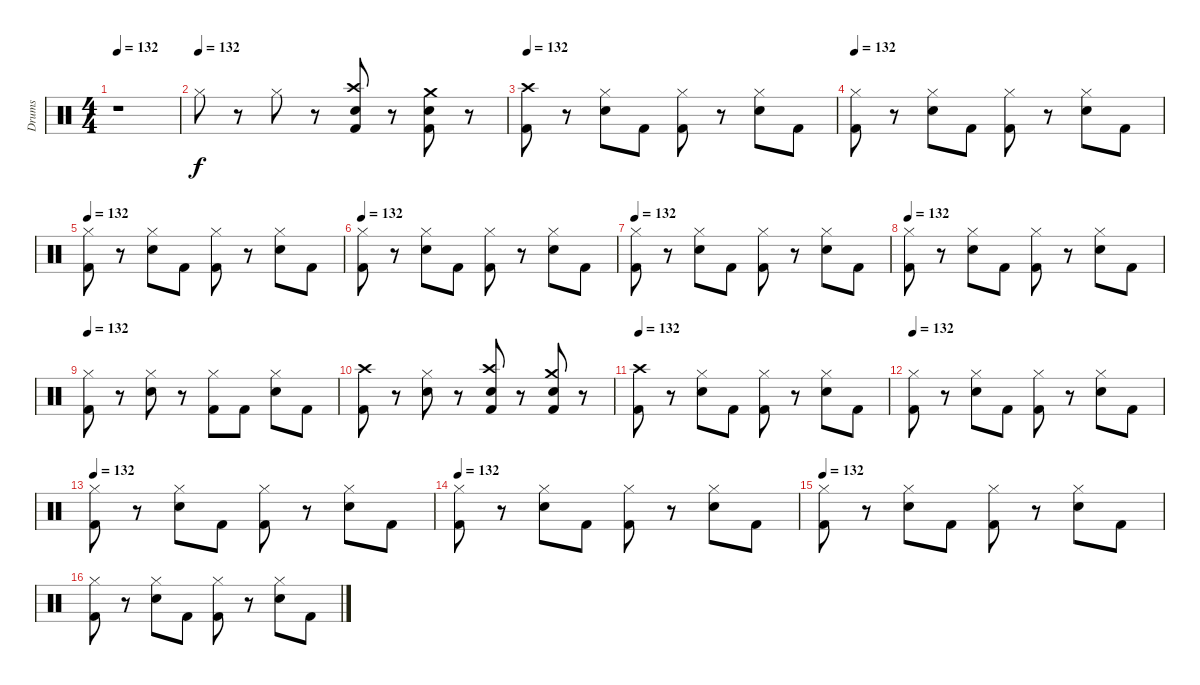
\track ("Drums" "Drums") {instrument percussion}
\staff {score}
\articulation defaults
\ts (4 4)
\tempo 132
\clef neutral
\ks c
r.1{dy f} |
\tempo (132)
"Hi-Hat (closed)".8 r.8 "Hi-Hat (closed)".8 r.8 ("Kick (hit) 2" "Crash high (hit)" "Snare (hit) 2").8 r.8 ("Kick (hit) 2" "Crash medium (hit)" "Snare (hit) 2").8 r.8 |
\tempo 132
("Crash high (hit)" "Kick (hit) 2").8 r.8 ("Hi-Hat (closed)" "Electric Snare (hit)").8 "Kick (hit) 2".8 ("Hi-Hat (closed)" "Kick (hit) 2").8 r.8 ("Hi-Hat (closed)" "Electric Snare (hit)").8 "Kick (hit) 2".8 |
\tempo 132
("Hi-Hat (closed)" "Kick (hit) 2").8 r.8 ("Electric Snare (hit)" "Hi-Hat (closed)").8 "Kick (hit) 2".8 ("Kick (hit) 2" "Hi-Hat (closed)").8 r.8 ("Electric Snare (hit)" "Hi-Hat (closed)").8 "Kick (hit) 2".8 |
\tempo 132
("Hi-Hat (closed)" "Kick (hit) 2").8 r.8 ("Electric Snare (hit)" "Hi-Hat (closed)").8 "Kick (hit) 2".8 ("Kick (hit) 2" "Hi-Hat (closed)").8 r.8 ("Electric Snare (hit)" "Hi-Hat (closed)").8 "Kick (hit) 2".8 |
\tempo 132
("Hi-Hat (closed)" "Kick (hit) 2").8 r.8 ("Electric Snare (hit)" "Hi-Hat (closed)").8 "Kick (hit) 2".8 ("Kick (hit) 2" "Hi-Hat (closed)").8 r.8 ("Electric Snare (hit)" "Hi-Hat (closed)").8 "Kick (hit) 2".8 |
\tempo 132
("Hi-Hat (closed)" "Kick (hit) 2").8 r.8 ("Electric Snare (hit)" "Hi-Hat (closed)").8 "Kick (hit) 2".8 ("Kick (hit) 2" "Hi-Hat (closed)").8 r.8 ("Electric Snare (hit)" "Hi-Hat (closed)").8 "Kick (hit) 2".8 |
\tempo 132
("Hi-Hat (closed)" "Kick (hit) 2").8 r.8 ("Hi-Hat (closed)" "Electric Snare (hit)").8 "Kick (hit) 2".8 ("Hi-Hat (closed)" "Kick (hit) 2").8 r.8 ("Hi-Hat (closed)" "Electric Snare (hit)").8 "Kick (hit) 2".8 |
\tempo 132
("Hi-Hat (closed)" "Kick (hit) 2").8 r.8 ("Hi-Hat (closed)" "Electric Snare (hit)").8 r.8 ("Hi-Hat (closed)" "Kick (hit) 2").8 "Kick (hit) 2".8 ("Hi-Hat (closed)" "Electric Snare (hit)").8 "Kick (hit) 2".8 |
("Kick (hit) 2" "Crash high (hit)").8 r.8 ("Hi-Hat (closed)" "Electric Snare (hit)").8 r.8 ("Electric Snare (hit)" "Kick (hit) 2" "Crash high (hit)").8 r.8 ("Electric Snare (hit)" "Kick (hit) 2" "Crash medium (hit)").8 r.8 |
\tempo 132
("Crash high (hit)" "Kick (hit) 2").8 r.8 ("Hi-Hat (closed)" "Electric Snare (hit)").8 "Kick (hit) 2".8 ("Hi-Hat (closed)" "Kick (hit) 2").8 r.8 ("Hi-Hat (closed)" "Electric Snare (hit)").8 "Kick (hit) 2".8 |
\tempo 132
("Hi-Hat (closed)" "Kick (hit) 2").8 r.8 ("Electric Snare (hit)" "Hi-Hat (closed)").8 "Kick (hit) 2".8 ("Kick (hit) 2" "Hi-Hat (closed)").8 r.8 ("Electric Snare (hit)" "Hi-Hat (closed)").8 "Kick (hit) 2".8 |
\tempo 132
("Hi-Hat (closed)" "Kick (hit) 2").8 r.8 ("Electric Snare (hit)" "Hi-Hat (closed)").8 "Kick (hit) 2".8 ("Kick (hit) 2" "Hi-Hat (closed)").8 r.8 ("Electric Snare (hit)" "Hi-Hat (closed)").8 "Kick (hit) 2".8 |
\tempo 132
("Hi-Hat (closed)" "Kick (hit) 2").8 r.8 ("Electric Snare (hit)" "Hi-Hat (closed)").8 "Kick (hit) 2".8 ("Kick (hit) 2" "Hi-Hat (closed)").8 r.8 ("Electric Snare (hit)" "Hi-Hat (closed)").8 "Kick (hit) 2".8 |
\tempo 132
("Hi-Hat (closed)" "Kick (hit) 2").8 r.8 ("Electric Snare (hit)" "Hi-Hat (closed)").8 "Kick (hit) 2".8 ("Kick (hit) 2" "Hi-Hat (closed)").8 r.8 ("Electric Snare (hit)" "Hi-Hat (closed)").8 "Kick (hit) 2".8 |
("Hi-Hat (closed)" "Kick (hit) 2").8 r.8 ("Hi-Hat (closed)" "Electric Snare (hit)").8 "Kick (hit) 2".8 ("Hi-Hat (closed)" "Kick (hit) 2").8 r.8 ("Hi-Hat (closed)" "Electric Snare (hit)").8 "Kick (hit) 2".8
